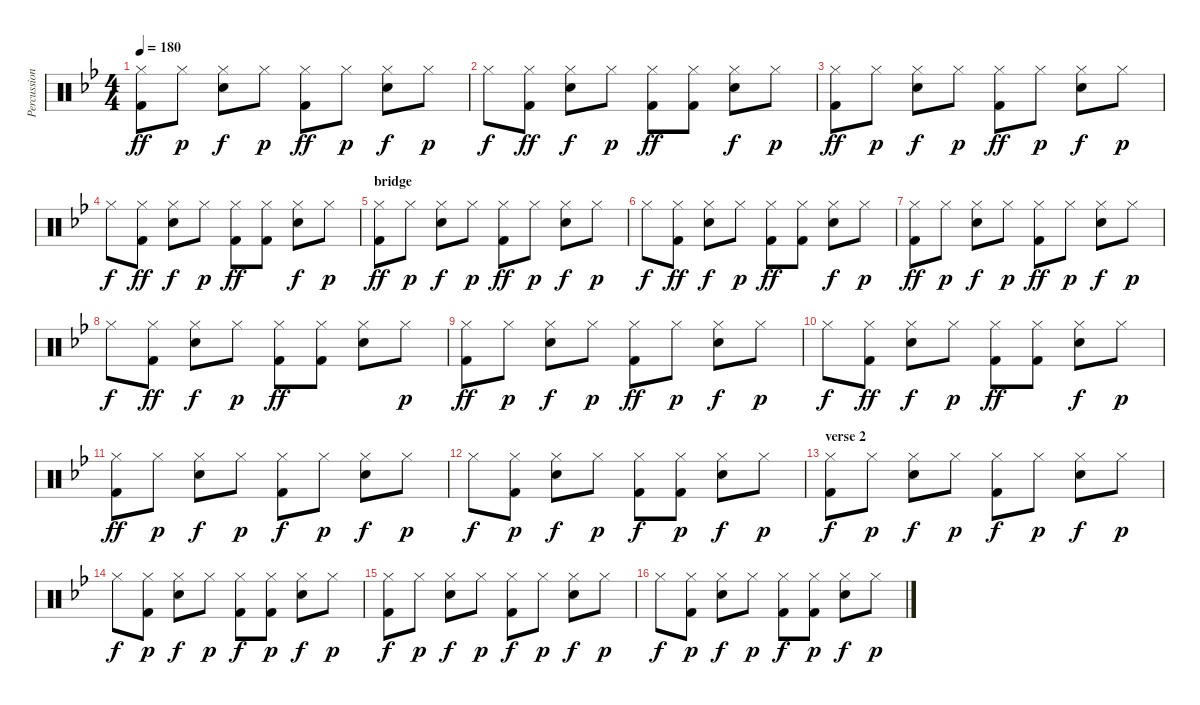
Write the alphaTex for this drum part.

\track ("Percussion" "Percussion") {instrument percussion}
\staff {score}
\articulation defaults
\ts (4 4)
\tempo 180
\clef neutral
\ks bb
("Hi-Hat (closed)" "Kick (hit) 2").8{dy ff} "Hi-Hat (closed)".8{dy p} ("Hi-Hat (closed)" "Snare (hit) 2").8{dy f} "Hi-Hat (closed)".8{dy p} ("Hi-Hat (closed)" "Kick (hit) 2").8{dy ff} "Hi-Hat (closed)".8{dy p} ("Hi-Hat (closed)" "Snare (hit) 2").8{dy f} "Hi-Hat (closed)".8{dy p} |
"Hi-Hat (closed)".8{dy f} ("Hi-Hat (closed)" "Kick (hit) 2").8{dy ff} ("Hi-Hat (closed)" "Snare (hit) 2").8{dy f} "Hi-Hat (closed)".8{dy p} ("Hi-Hat (closed)" "Kick (hit) 2").8{dy ff} ("Hi-Hat (closed)" "Kick (hit) 2").8 ("Hi-Hat (closed)" "Snare (hit) 2").8{dy f} "Hi-Hat (closed)".8{dy p} |
("Hi-Hat (closed)" "Kick (hit) 2").8{dy ff} "Hi-Hat (closed)".8{dy p} ("Hi-Hat (closed)" "Snare (hit) 2").8{dy f} "Hi-Hat (closed)".8{dy p} ("Hi-Hat (closed)" "Kick (hit) 2").8{dy ff} "Hi-Hat (closed)".8{dy p} ("Hi-Hat (closed)" "Snare (hit) 2").8{dy f} "Hi-Hat (closed)".8{dy p} |
"Hi-Hat (closed)".8{dy f} ("Hi-Hat (closed)" "Kick (hit) 2").8{dy ff} ("Hi-Hat (closed)" "Snare (hit) 2").8{dy f} "Hi-Hat (closed)".8{dy p} ("Hi-Hat (closed)" "Kick (hit) 2").8{dy ff} ("Hi-Hat (closed)" "Kick (hit) 2").8 ("Hi-Hat (closed)" "Snare (hit) 2").8{dy f} "Hi-Hat (closed)".8{dy p} |
\section ("" "bridge")
("Hi-Hat (closed)" "Kick (hit) 2").8{dy ff} "Hi-Hat (closed)".8{dy p} ("Hi-Hat (closed)" "Snare (hit) 2").8{dy f} "Hi-Hat (closed)".8{dy p} ("Hi-Hat (closed)" "Kick (hit) 2").8{dy ff} "Hi-Hat (closed)".8{dy p} ("Hi-Hat (closed)" "Snare (hit) 2").8{dy f} "Hi-Hat (closed)".8{dy p} |
"Hi-Hat (closed)".8{dy f} ("Hi-Hat (closed)" "Kick (hit) 2").8{dy ff} ("Hi-Hat (closed)" "Snare (hit) 2").8{dy f} "Hi-Hat (closed)".8{dy p} ("Hi-Hat (closed)" "Kick (hit) 2").8{dy ff} ("Hi-Hat (closed)" "Kick (hit) 2").8 ("Hi-Hat (closed)" "Snare (hit) 2").8{dy f} "Hi-Hat (closed)".8{dy p} |
("Hi-Hat (closed)" "Kick (hit) 2").8{dy ff} "Hi-Hat (closed)".8{dy p} ("Hi-Hat (closed)" "Snare (hit) 2").8{dy f} "Hi-Hat (closed)".8{dy p} ("Hi-Hat (closed)" "Kick (hit) 2").8{dy ff} "Hi-Hat (closed)".8{dy p} ("Hi-Hat (closed)" "Snare (hit) 2").8{dy f} "Hi-Hat (closed)".8{dy p} |
"Hi-Hat (closed)".8{dy f} ("Hi-Hat (closed)" "Kick (hit) 2").8{dy ff} ("Hi-Hat (closed)" "Snare (hit) 2").8{dy f} "Hi-Hat (closed)".8{dy p} ("Hi-Hat (closed)" "Kick (hit) 2").8{dy ff} ("Hi-Hat (closed)" "Kick (hit) 2").8 ("Hi-Hat (closed)" "Snare (hit) 2").8 "Hi-Hat (closed)".8{dy p} |
("Hi-Hat (closed)" "Kick (hit) 2").8{dy ff} "Hi-Hat (closed)".8{dy p} ("Hi-Hat (closed)" "Snare (hit) 2").8{dy f} "Hi-Hat (closed)".8{dy p} ("Hi-Hat (closed)" "Kick (hit) 2").8{dy ff} "Hi-Hat (closed)".8{dy p} ("Hi-Hat (closed)" "Snare (hit) 2").8{dy f} "Hi-Hat (closed)".8{dy p} |
"Hi-Hat (closed)".8{dy f} ("Hi-Hat (closed)" "Kick (hit) 2").8{dy ff} ("Hi-Hat (closed)" "Snare (hit) 2").8{dy f} "Hi-Hat (closed)".8{dy p} ("Hi-Hat (closed)" "Kick (hit) 2").8{dy ff} ("Hi-Hat (closed)" "Kick (hit) 2").8 ("Hi-Hat (closed)" "Snare (hit) 2").8{dy f} "Hi-Hat (closed)".8{dy p} |
("Hi-Hat (closed)" "Kick (hit) 2").8{dy ff} "Hi-Hat (closed)".8{dy p} ("Hi-Hat (closed)" "Snare (hit) 2").8{dy f} "Hi-Hat (closed)".8{dy p} ("Hi-Hat (closed)" "Kick (hit) 2").8{dy f} "Hi-Hat (closed)".8{dy p} ("Hi-Hat (closed)" "Snare (hit) 2").8{dy f} "Hi-Hat (closed)".8{dy p} |
"Hi-Hat (closed)".8{dy f} ("Hi-Hat (closed)" "Kick (hit) 2").8{dy p} ("Hi-Hat (closed)" "Snare (hit) 2").8{dy f} "Hi-Hat (closed)".8{dy p} ("Hi-Hat (closed)" "Kick (hit) 2").8{dy f} ("Hi-Hat (closed)" "Kick (hit) 2").8{dy p} ("Hi-Hat (closed)" "Snare (hit) 2").8{dy f} "Hi-Hat (closed)".8{dy p} |
\section ("" "verse 2")
("Hi-Hat (closed)" "Kick (hit) 2").8{dy f} "Hi-Hat (closed)".8{dy p} ("Hi-Hat (closed)" "Snare (hit) 2").8{dy f} "Hi-Hat (closed)".8{dy p} ("Hi-Hat (closed)" "Kick (hit) 2").8{dy f} "Hi-Hat (closed)".8{dy p} ("Hi-Hat (closed)" "Snare (hit) 2").8{dy f} "Hi-Hat (closed)".8{dy p} |
"Hi-Hat (closed)".8{dy f} ("Hi-Hat (closed)" "Kick (hit) 2").8{dy p} ("Hi-Hat (closed)" "Snare (hit) 2").8{dy f} "Hi-Hat (closed)".8{dy p} ("Hi-Hat (closed)" "Kick (hit) 2").8{dy f} ("Hi-Hat (closed)" "Kick (hit) 2").8{dy p} ("Hi-Hat (closed)" "Snare (hit) 2").8{dy f} "Hi-Hat (closed)".8{dy p} |
("Hi-Hat (closed)" "Kick (hit) 2").8{dy f} "Hi-Hat (closed)".8{dy p} ("Hi-Hat (closed)" "Snare (hit) 2").8{dy f} "Hi-Hat (closed)".8{dy p} ("Hi-Hat (closed)" "Kick (hit) 2").8{dy f} "Hi-Hat (closed)".8{dy p} ("Hi-Hat (closed)" "Snare (hit) 2").8{dy f} "Hi-Hat (closed)".8{dy p} |
"Hi-Hat (closed)".8{dy f} ("Hi-Hat (closed)" "Kick (hit) 2").8{dy p} ("Hi-Hat (closed)" "Snare (hit) 2").8{dy f} "Hi-Hat (closed)".8{dy p} ("Hi-Hat (closed)" "Kick (hit) 2").8{dy f} ("Hi-Hat (closed)" "Kick (hit) 2").8{dy p} ("Hi-Hat (closed)" "Snare (hit) 2").8{dy f} "Hi-Hat (closed)".8{dy p}
